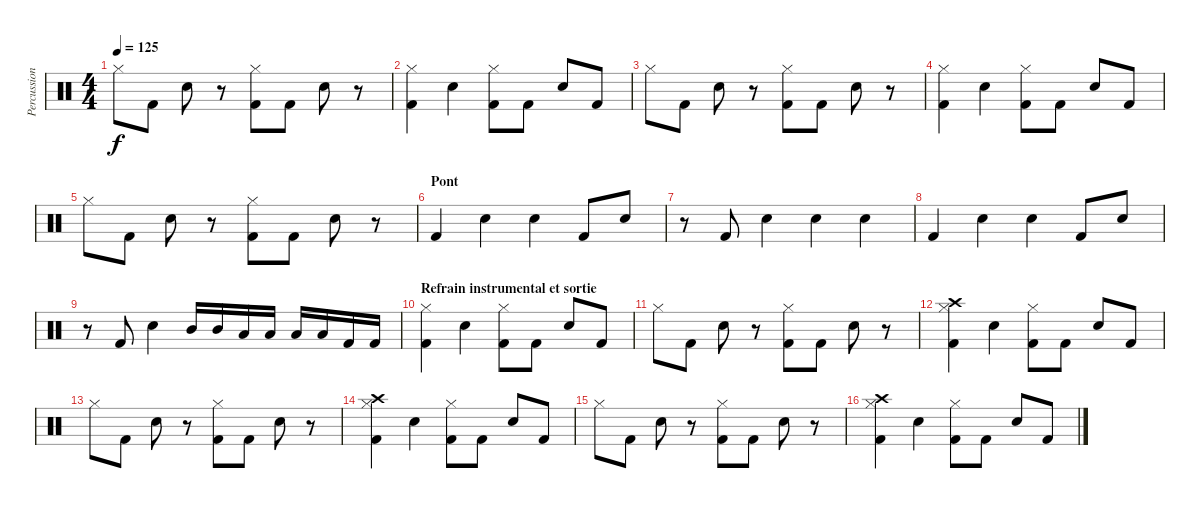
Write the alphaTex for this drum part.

\track ("Percussions" "Percussion") {instrument percussion}
\staff {score}
\articulation defaults
\ts (4 4)
\tempo 125
\clef neutral
\ks c "Hi-Hat (closed)".8{dy f} "Kick (hit) 2".8 "Snare (hit) 2".8
r.8 ("Hi-Hat (closed)" "Kick (hit) 2").8 "Kick (hit) 2".8 "Snare (hit) 2".8 r.8 |
("Hi-Hat (closed)" "Kick (hit) 2").4 "Snare (hit) 2".4 ("Hi-Hat (closed)" "Kick (hit) 2").8 "Kick (hit) 2".8 "Snare (hit) 2".8 "Kick (hit) 2".8 |
"Hi-Hat (closed)".8 "Kick (hit) 2".8 "Snare (hit) 2".8 r.8 ("Hi-Hat (closed)" "Kick (hit) 2").8 "Kick (hit) 2".8 "Snare (hit) 2".8 r.8 |
("Hi-Hat (closed)" "Kick (hit) 2").4 "Snare (hit) 2".4 ("Hi-Hat (closed)" "Kick (hit) 2").8 "Kick (hit) 2".8 "Snare (hit) 2".8 "Kick (hit) 2".8 |
"Hi-Hat (closed)".8 "Kick (hit) 2".8 "Snare (hit) 2".8 r.8 ("Hi-Hat (closed)" "Kick (hit) 2").8 "Kick (hit) 2".8 "Snare (hit) 2".8 r.8 |
\section ("" "Pont")
"Kick (hit) 2".4 "Snare (hit) 2".4 "Snare (hit) 2".4 "Kick (hit) 2".8 "Snare (hit) 2".8 |
r.8 "Kick (hit) 2".8 "Snare (hit) 2".4 "Snare (hit) 2".4 "Snare (hit) 2".4 |
"Kick (hit) 2".4 "Snare (hit) 2".4 "Snare (hit) 2".4 "Kick (hit) 2".8 "Snare (hit) 2".8 |
r.8 "Kick (hit) 2".8 "Snare (hit) 2".4 "Mid Tom (hit)".16 "Mid Tom (hit)".16 "Low Tom (hit)".16 "Low Tom (hit)".16 "Low Floor Tom (hit)".16 "Low Floor Tom (hit)".16 "Kick (hit) 2".16 "Kick (hit) 2".16 |
\section ("" "Refrain instrumental et sortie")
("Hi-Hat (closed)" "Kick (hit) 2").4 "Snare (hit) 2".4 ("Hi-Hat (closed)" "Kick (hit) 2").8 "Kick (hit) 2".8 "Snare (hit) 2".8 "Kick (hit) 2".8 |
"Hi-Hat (closed)".8 "Kick (hit) 2".8 "Snare (hit) 2".8 r.8 ("Hi-Hat (closed)" "Kick (hit) 2").8 "Kick (hit) 2".8 "Snare (hit) 2".8 r.8 |
("Crash high (hit)" "Hi-Hat (closed)" "Kick (hit) 2").4 "Snare (hit) 2".4 ("Hi-Hat (closed)" "Kick (hit) 2").8 "Kick (hit) 2".8 "Snare (hit) 2".8 "Kick (hit) 2".8 |
"Hi-Hat (closed)".8 "Kick (hit) 2".8 "Snare (hit) 2".8 r.8 ("Hi-Hat (closed)" "Kick (hit) 2").8 "Kick (hit) 2".8 "Snare (hit) 2".8 r.8 |
("Crash high (hit)" "Hi-Hat (closed)" "Kick (hit) 2").4 "Snare (hit) 2".4 ("Hi-Hat (closed)" "Kick (hit) 2").8 "Kick (hit) 2".8 "Snare (hit) 2".8 "Kick (hit) 2".8 |
"Hi-Hat (closed)".8 "Kick (hit) 2".8 "Snare (hit) 2".8 r.8 ("Hi-Hat (closed)" "Kick (hit) 2").8 "Kick (hit) 2".8 "Snare (hit) 2".8 r.8 |
("Crash high (hit)" "Hi-Hat (closed)" "Kick (hit) 2").4 "Snare (hit) 2".4 ("Hi-Hat (closed)" "Kick (hit) 2").8 "Kick (hit) 2".8 "Snare (hit) 2".8 "Kick (hit) 2".8
